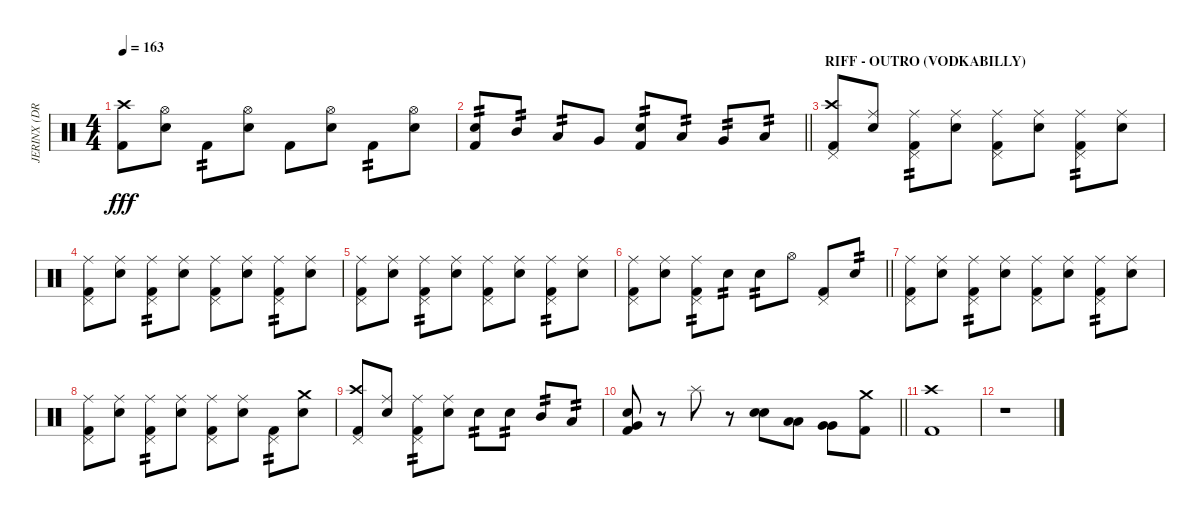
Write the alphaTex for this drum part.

\track ("JERINX (DRUM)" "JERINX (DR") {instrument percussion}
\staff {score}
\articulation defaults
\ts (4 4)
\tempo 163
\clef neutral
\ks c
("Kick (hit) 2" "Crash high (hit)").8{dy fff} ("Hi-Hat (open)" "Snare (hit) 2").8 "Kick (hit) 2".8{tp 2} ("Hi-Hat (open)" "Snare (hit) 2").8 "Kick (hit) 2".8 ("Hi-Hat (open)" "Snare (hit) 2").8 "Kick (hit) 2".8{tp 2} ("Hi-Hat (open)" "Snare (hit) 2").8 |
\barLineRight lightlight
("Snare (hit) 2" "Kick (hit) 2").8{tp 2} "Mid Tom (hit)".8{tp 2} "Low Tom (hit)".8{tp 2} "Very Low Tom (hit)".8 ("Snare (hit) 2" "Kick (hit) 2").8{tp 2} "Low Tom (hit)".8{tp 2} "Very Low Tom (hit)".8{tp 2} "Low Floor Tom (hit)".8{tp 2} |
\section ("" "RIFF - OUTRO (VODKABILLY)")
("Pedal Hi-Hat (hit)" "Kick (hit) 2" "Crash high (hit)").8 ("Snare (hit) 2" "Ride (middle)").8 ("Pedal Hi-Hat (hit)" "Kick (hit) 2" "Ride (middle)").8{tp 2} ("Snare (hit) 2" "Ride (middle)").8 ("Pedal Hi-Hat (hit)" "Kick (hit) 2" "Ride (middle)").8 ("Snare (hit) 2" "Ride (middle)").8 ("Pedal Hi-Hat (hit)" "Kick (hit) 2" "Ride (middle)").8{tp 2} ("Snare (hit) 2" "Ride (middle)").8 |
("Pedal Hi-Hat (hit)" "Kick (hit) 2" "Ride (middle)").8 ("Snare (hit) 2" "Ride (middle)").8 ("Pedal Hi-Hat (hit)" "Kick (hit) 2" "Ride (middle)").8{tp 2} ("Snare (hit) 2" "Ride (middle)").8 ("Pedal Hi-Hat (hit)" "Kick (hit) 2" "Ride (middle)").8 ("Snare (hit) 2" "Ride (middle)").8 ("Pedal Hi-Hat (hit)" "Kick (hit) 2" "Ride (middle)").8{tp 2} ("Snare (hit) 2" "Ride (middle)").8 |
("Pedal Hi-Hat (hit)" "Kick (hit) 2" "Ride (middle)").8 ("Snare (hit) 2" "Ride (middle)").8 ("Pedal Hi-Hat (hit)" "Kick (hit) 2" "Ride (middle)").8{tp 2} ("Snare (hit) 2" "Ride (middle)").8 ("Pedal Hi-Hat (hit)" "Kick (hit) 2" "Ride (middle)").8 ("Snare (hit) 2" "Ride (middle)").8 ("Pedal Hi-Hat (hit)" "Kick (hit) 2" "Ride (middle)").8{tp 2} ("Snare (hit) 2" "Ride (middle)").8 |
\barLineRight lightlight
("Pedal Hi-Hat (hit)" "Kick (hit) 2" "Ride (middle)").8 ("Snare (hit) 2" "Ride (middle)").8 ("Pedal Hi-Hat (hit)" "Kick (hit) 2" "Ride (middle)").8{tp 2} "Snare (hit) 2".8{tp 2} "Snare (hit) 2".8{tp 2} "Hi-Hat (open)".8 ("Pedal Hi-Hat (hit)" "Kick (hit) 2").8 "Snare (hit) 2".8{tp 2} |
("Pedal Hi-Hat (hit)" "Kick (hit) 2" "Ride (middle)").8 ("Snare (hit) 2" "Ride (middle)").8 ("Pedal Hi-Hat (hit)" "Kick (hit) 2" "Ride (middle)").8{tp 2} ("Snare (hit) 2" "Ride (middle)").8 ("Pedal Hi-Hat (hit)" "Kick (hit) 2" "Ride (middle)").8 ("Snare (hit) 2" "Ride (middle)").8 ("Pedal Hi-Hat (hit)" "Kick (hit) 2" "Ride (middle)").8{tp 2} ("Snare (hit) 2" "Ride (middle)").8 |
("Pedal Hi-Hat (hit)" "Kick (hit) 2" "Ride (middle)").8 ("Snare (hit) 2" "Ride (middle)").8 ("Pedal Hi-Hat (hit)" "Kick (hit) 2" "Ride (middle)").8{tp 2} ("Snare (hit) 2" "Ride (middle)").8 ("Pedal Hi-Hat (hit)" "Kick (hit) 2" "Ride (middle)").8 ("Snare (hit) 2" "Ride (middle)").8 ("Pedal Hi-Hat (hit)" "Kick (hit) 2").8{tp 2} ("Snare (hit) 2" "Crash medium (hit)").8 |
("Pedal Hi-Hat (hit)" "Kick (hit) 2" "Crash high (hit)").8 ("Snare (hit) 2" "Ride (middle)").8 ("Pedal Hi-Hat (hit)" "Kick (hit) 2" "Ride (middle)").8{tp 2} ("Snare (hit) 2" "Ride (middle)").8 "Snare (hit) 2".8{tp 2} "Snare (hit) 2".8{tp 2} "Mid Tom (hit)".8{tp 2} "Low Tom (hit)".8{tp 2} |
\barLineRight lightlight
("Snare (hit) 2" "Kick (hit) 2" "Very Low Tom (hit)").8 r.8 "Splash (hit)".8 r.8 ("Snare (hit) 2" "Snare (hit) 2").8{bu 120} ("Low Tom (hit)" "Low Tom (hit)").8{bu 120} ("Very Low Tom (hit)" "Very Low Tom (hit)").8{bu 120} ("Kick (hit) 2" "Crash medium (hit)").8 |
("Kick (hit) 2" "Crash high (hit)").1 |
r.1
